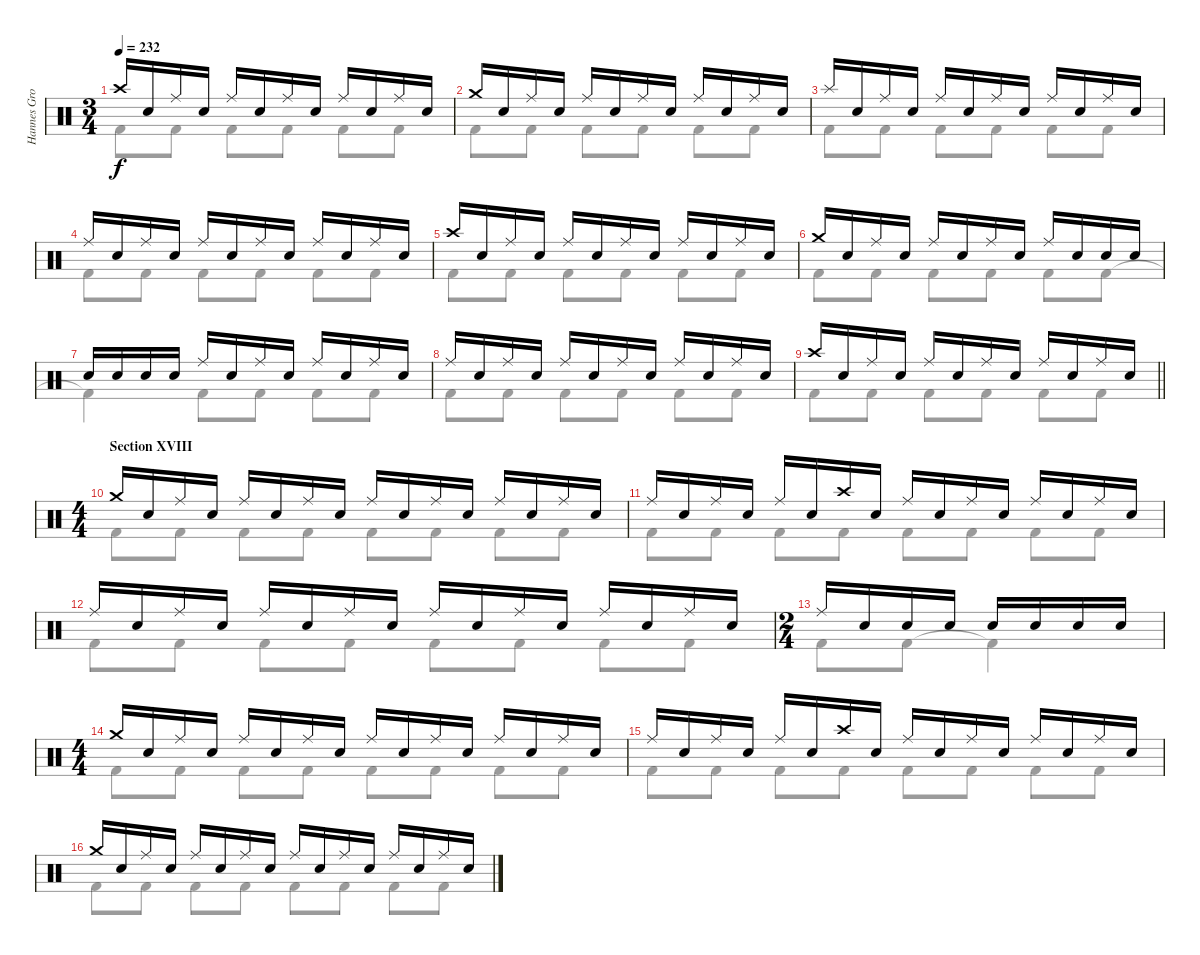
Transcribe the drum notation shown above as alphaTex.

\track ("Hannes Grossman" "Hannes Gro") {instrument percussion}
\staff {score}
\articulation defaults
\voice
\ts (3 4)
\tempo 232
\clef neutral
\ks c "Crash high (hit)".16{dy f} "Electric Snare (hit)".16 "Ride (middle)".16 "Electric Snare (hit)".16 "Ride (middle)".16 "Electric Snare (hit)".16 "Ride (middle)".16 "Electric Snare (hit)".16 "Ride (middle)".16 "Electric Snare (hit)".16 "Ride (middle)".16 "Electric Snare (hit)".16
|
"Crash medium (hit)".16 "Electric Snare (hit)".16 "Ride (middle)".16 "Electric Snare (hit)".16 "Ride (middle)".16 "Electric Snare (hit)".16 "Ride (middle)".16 "Electric Snare (hit)".16 "Ride (middle)".16 "Electric Snare (hit)".16 "Ride (middle)".16 "Electric Snare (hit)".16 |
"Splash (hit)".16 "Electric Snare (hit)".16 "Ride (middle)".16 "Electric Snare (hit)".16 "Ride (middle)".16 "Electric Snare (hit)".16 "Ride (middle)".16 "Electric Snare (hit)".16 "Ride (middle)".16 "Electric Snare (hit)".16 "Ride (middle)".16 "Electric Snare (hit)".16 |
"Ride (middle)".16 "Electric Snare (hit)".16 "Ride (middle)".16 "Electric Snare (hit)".16 "Ride (middle)".16 "Electric Snare (hit)".16 "Ride (middle)".16 "Electric Snare (hit)".16 "Ride (middle)".16 "Electric Snare (hit)".16 "Ride (middle)".16 "Electric Snare (hit)".16 |
"Crash high (hit)".16 "Electric Snare (hit)".16 "Ride (middle)".16 "Electric Snare (hit)".16 "Ride (middle)".16 "Electric Snare (hit)".16 "Ride (middle)".16 "Electric Snare (hit)".16 "Ride (middle)".16 "Electric Snare (hit)".16 "Ride (middle)".16 "Electric Snare (hit)".16 |
"Crash medium (hit)".16 "Electric Snare (hit)".16 "Ride (middle)".16 "Electric Snare (hit)".16 "Ride (middle)".16 "Electric Snare (hit)".16 "Ride (middle)".16 "Electric Snare (hit)".16 "Ride (middle)".16 "Electric Snare (hit)".16 "Electric Snare (hit)".16 "Electric Snare (hit)".16 |
"Electric Snare (hit)".16 "Electric Snare (hit)".16 "Electric Snare (hit)".16 "Electric Snare (hit)".16 "Ride (middle)".16 "Electric Snare (hit)".16 "Ride (middle)".16 "Electric Snare (hit)".16 "Ride (middle)".16 "Electric Snare (hit)".16 "Ride (middle)".16 "Electric Snare (hit)".16 |
"Ride (middle)".16 "Electric Snare (hit)".16 "Ride (middle)".16 "Electric Snare (hit)".16 "Ride (middle)".16 "Electric Snare (hit)".16 "Ride (middle)".16 "Electric Snare (hit)".16 "Ride (middle)".16 "Electric Snare (hit)".16 "Ride (middle)".16 "Electric Snare (hit)".16 |
\barLineRight lightlight "Crash high (hit)".16 "Electric Snare (hit)".16 "Ride (middle)".16 "Electric Snare (hit)".16 "Ride (middle)".16 "Electric Snare (hit)".16 "Ride (middle)".16 "Electric Snare (hit)".16 "Ride (middle)".16 "Electric Snare (hit)".16 "Ride (middle)".16 "Electric Snare (hit)".16
|
\ts (4 4)
\section ("" "Section XVIII")
"Crash medium (hit)".16 "Electric Snare (hit)".16 "Ride (middle)".16 "Electric Snare (hit)".16 "Ride (middle)".16 "Electric Snare (hit)".16 "Ride (middle)".16 "Electric Snare (hit)".16 "Ride (middle)".16 "Electric Snare (hit)".16 "Ride (middle)".16 "Electric Snare (hit)".16 "Ride (middle)".16 "Electric Snare (hit)".16 "Ride (middle)".16 "Electric Snare (hit)".16 |
"Ride (middle)".16 "Electric Snare (hit)".16 "Ride (middle)".16 "Electric Snare (hit)".16 "Ride (middle)".16 "Electric Snare (hit)".16 "Crash high (hit)".16 "Electric Snare (hit)".16 "Ride (middle)".16 "Electric Snare (hit)".16 "Ride (middle)".16 "Electric Snare (hit)".16 "Ride (middle)".16 "Electric Snare (hit)".16 "Ride (middle)".16 "Electric Snare (hit)".16 |
"Ride (middle)".16 "Electric Snare (hit)".16 "Ride (middle)".16 "Electric Snare (hit)".16 "Ride (middle)".16 "Electric Snare (hit)".16 "Ride (middle)".16 "Electric Snare (hit)".16 "Ride (middle)".16 "Electric Snare (hit)".16 "Ride (middle)".16 "Electric Snare (hit)".16 "Ride (middle)".16 "Electric Snare (hit)".16 "Ride (middle)".16 "Electric Snare (hit)".16 |
\ts (2 4)
"Ride (middle)".16 "Electric Snare (hit)".16 "Electric Snare (hit)".16 "Electric Snare (hit)".16 "Electric Snare (hit)".16 "Electric Snare (hit)".16 "Electric Snare (hit)".16 "Electric Snare (hit)".16 |
\ts (4 4)
"Crash medium (hit)".16 "Electric Snare (hit)".16 "Ride (middle)".16 "Electric Snare (hit)".16 "Ride (middle)".16 "Electric Snare (hit)".16 "Ride (middle)".16 "Electric Snare (hit)".16 "Ride (middle)".16 "Electric Snare (hit)".16 "Ride (middle)".16 "Electric Snare (hit)".16 "Ride (middle)".16 "Electric Snare (hit)".16 "Ride (middle)".16 "Electric Snare (hit)".16 |
"Ride (middle)".16 "Electric Snare (hit)".16 "Ride (middle)".16 "Electric Snare (hit)".16 "Ride (middle)".16 "Electric Snare (hit)".16 "Crash high (hit)".16 "Electric Snare (hit)".16 "Ride (middle)".16 "Electric Snare (hit)".16 "Ride (middle)".16 "Electric Snare (hit)".16 "Ride (middle)".16 "Electric Snare (hit)".16 "Ride (middle)".16 "Electric Snare (hit)".16 |
"Crash medium (hit)".16 "Electric Snare (hit)".16 "Ride (middle)".16 "Electric Snare (hit)".16 "Ride (middle)".16 "Electric Snare (hit)".16 "Ride (middle)".16 "Electric Snare (hit)".16 "Ride (middle)".16 "Electric Snare (hit)".16 "Ride (middle)".16 "Electric Snare (hit)".16 "Ride (middle)".16 "Electric Snare (hit)".16 "Ride (middle)".16 "Electric Snare (hit)".16
\voice
\clef neutral
\ottava regular
\simile none
\ks c "Kick (hit) 2".8{dy f} "Kick (hit) 2".8 "Kick (hit) 2".8 "Kick (hit) 2".8 "Kick (hit) 2".8 "Kick (hit) 2".8
|
"Kick (hit) 2".8 "Kick (hit) 2".8 "Kick (hit) 2".8 "Kick (hit) 2".8 "Kick (hit) 2".8 "Kick (hit) 2".8 |
"Kick (hit) 2".8 "Kick (hit) 2".8 "Kick (hit) 2".8 "Kick (hit) 2".8 "Kick (hit) 2".8 "Kick (hit) 2".8 |
"Kick (hit) 2".8 "Kick (hit) 2".8 "Kick (hit) 2".8 "Kick (hit) 2".8 "Kick (hit) 2".8 "Kick (hit) 2".8 |
"Kick (hit) 2".8 "Kick (hit) 2".8 "Kick (hit) 2".8 "Kick (hit) 2".8 "Kick (hit) 2".8 "Kick (hit) 2".8 |
"Kick (hit) 2".8 "Kick (hit) 2".8 "Kick (hit) 2".8 "Kick (hit) 2".8 "Kick (hit) 2".8 "Kick (hit) 2".8 |
"Kick (hit) 2"{t}.4 "Kick (hit) 2".8 "Kick (hit) 2".8 "Kick (hit) 2".8 "Kick (hit) 2".8 |
"Kick (hit) 2".8 "Kick (hit) 2".8 "Kick (hit) 2".8 "Kick (hit) 2".8 "Kick (hit) 2".8 "Kick (hit) 2".8 |
\barLineRight lightlight "Kick (hit) 2".8 "Kick (hit) 2".8 "Kick (hit) 2".8 "Kick (hit) 2".8 "Kick (hit) 2".8 "Kick (hit) 2".8
|
"Kick (hit) 2".8 "Kick (hit) 2".8 "Kick (hit) 2".8 "Kick (hit) 2".8 "Kick (hit) 2".8 "Kick (hit) 2".8 "Kick (hit) 2".8 "Kick (hit) 2".8 |
"Kick (hit) 2".8 "Kick (hit) 2".8 "Kick (hit) 2".8 "Kick (hit) 2".8 "Kick (hit) 2".8 "Kick (hit) 2".8 "Kick (hit) 2".8 "Kick (hit) 2".8 |
"Kick (hit) 2".8 "Kick (hit) 2".8 "Kick (hit) 2".8 "Kick (hit) 2".8 "Kick (hit) 2".8 "Kick (hit) 2".8 "Kick (hit) 2".8 "Kick (hit) 2".8 |
"Kick (hit) 2".8 "Kick (hit) 2".8 "Kick (hit) 2"{t}.4 |
"Kick (hit) 2".8 "Kick (hit) 2".8 "Kick (hit) 2".8 "Kick (hit) 2".8 "Kick (hit) 2".8 "Kick (hit) 2".8 "Kick (hit) 2".8 "Kick (hit) 2".8 |
"Kick (hit) 2".8 "Kick (hit) 2".8 "Kick (hit) 2".8 "Kick (hit) 2".8 "Kick (hit) 2".8 "Kick (hit) 2".8 "Kick (hit) 2".8 "Kick (hit) 2".8 |
"Kick (hit) 2".8 "Kick (hit) 2".8 "Kick (hit) 2".8 "Kick (hit) 2".8 "Kick (hit) 2".8 "Kick (hit) 2".8 "Kick (hit) 2".8 "Kick (hit) 2".8
